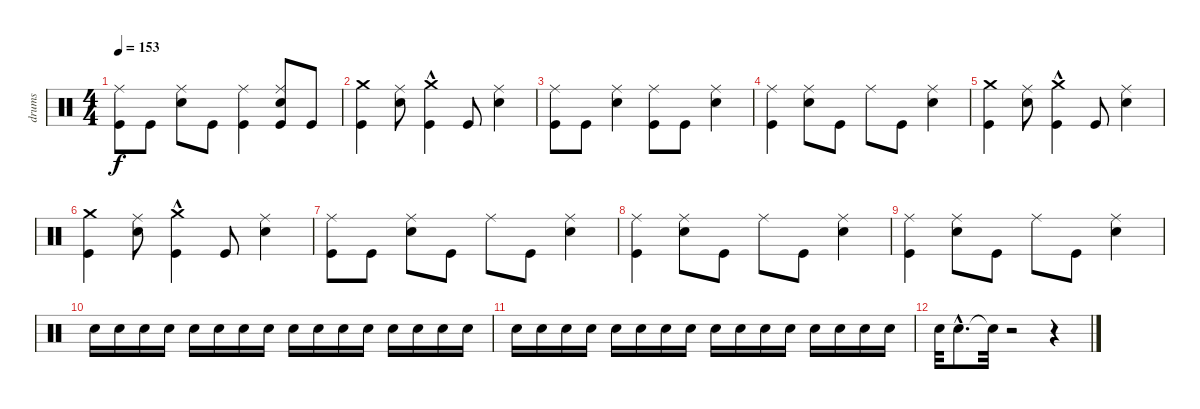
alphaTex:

\track ("drums" "drums") {instrument percussion}
\staff {score}
\articulation defaults
\ts (4 4)
\tempo 153
\clef neutral
\ks c
("Kick (hit)" "Ride (middle)").8{dy f} "Kick (hit)".8 ("Ride (middle)" "Snare (hit) 2").8 "Kick (hit)".8 ("Kick (hit)" "Ride (middle)").4 ("Kick (hit)" "Ride (middle)" "Snare (hit) 2").8 "Kick (hit)".8 |
("Kick (hit)" "Crash medium (hit)").4 ("Ride (middle)" "Snare (hit) 2").8 ("Crash medium (hit)"{hac} "Kick (hit)").4 "Kick (hit)".8 ("Ride (middle)" "Snare (hit) 2").4 |
("Ride (middle)" "Kick (hit)").8 "Kick (hit)".8 ("Snare (hit) 2" "Ride (middle)").4 ("Ride (middle)" "Kick (hit)").8 "Kick (hit)".8 ("Snare (hit) 2" "Ride (middle)").4 |
("Kick (hit)" "Ride (middle)").4 ("Ride (middle)" "Snare (hit) 2").8 "Kick (hit)".8 "Ride (middle)".8 "Kick (hit)".8 ("Ride (middle)" "Snare (hit) 2").4 |
("Kick (hit)" "Crash medium (hit)").4 ("Ride (middle)" "Snare (hit) 2").8 ("Crash medium (hit)"{hac} "Kick (hit)").4 "Kick (hit)".8 ("Ride (middle)" "Snare (hit) 2").4 |
("Kick (hit)" "Crash medium (hit)").4 ("Ride (middle)" "Snare (hit) 2").8 ("Crash medium (hit)"{hac} "Kick (hit)").4 "Kick (hit)".8 ("Ride (middle)" "Snare (hit) 2").4 |
("Ride (middle)" "Kick (hit)").8 "Kick (hit)".8 ("Snare (hit) 2" "Ride (middle)").8 "Kick (hit)".8 "Ride (middle)".8 "Kick (hit)".8 ("Snare (hit) 2" "Ride (middle)").4 |
("Kick (hit)" "Ride (middle)").4 ("Ride (middle)" "Snare (hit) 2").8 "Kick (hit)".8 "Ride (middle)".8 "Kick (hit)".8 ("Ride (middle)" "Snare (hit) 2").4 |
("Kick (hit)" "Ride (middle)").4 ("Ride (middle)" "Snare (hit) 2").8 "Kick (hit)".8 "Ride (middle)".8 "Kick (hit)".8 ("Ride (middle)" "Snare (hit) 2").4 |
"Snare (hit) 2".16 "Snare (hit) 2".16 "Snare (hit) 2".16 "Snare (hit) 2".16 "Snare (hit) 2".16 "Snare (hit) 2".16 "Snare (hit) 2".16 "Snare (hit) 2".16 "Snare (hit) 2".16 "Snare (hit) 2".16 "Snare (hit) 2".16 "Snare (hit) 2".16 "Snare (hit) 2".16 "Snare (hit) 2".16 "Snare (hit) 2".16 "Snare (hit) 2".16 |
"Snare (hit) 2".16 "Snare (hit) 2".16 "Snare (hit) 2".16 "Snare (hit) 2".16 "Snare (hit) 2".16 "Snare (hit) 2".16 "Snare (hit) 2".16 "Snare (hit) 2".16 "Snare (hit) 2".16 "Snare (hit) 2".16 "Snare (hit) 2".16 "Snare (hit) 2".16 "Snare (hit) 2".16 "Snare (hit) 2".16 "Snare (hit) 2".16 "Snare (hit) 2".16 |
"Snare (hit) 2".32 "Snare (hit) 2"{hac}.8{d} "Snare (hit)"{t}.32 r.2 r.4
